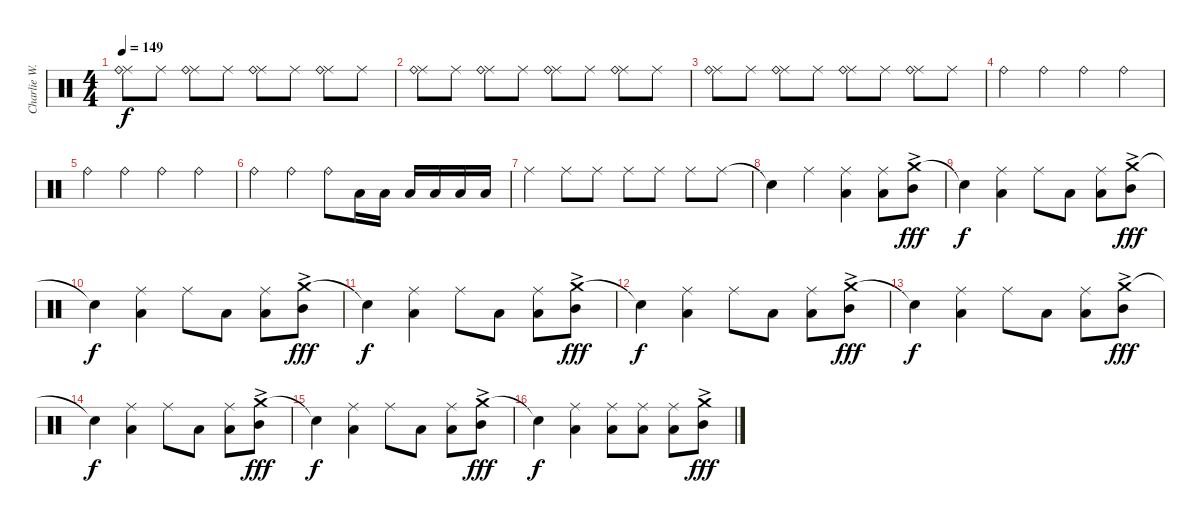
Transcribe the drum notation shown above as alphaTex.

\track ("Charlie W. drums" "Charlie W.") {instrument percussion}
\staff {score}
\articulation defaults
\ts (4 4)
\tempo 149
\clef neutral
\ks c
("Ride (middle)" "Ride (bell)").8{dy f} "Ride (middle)".8 ("Ride (middle)" "Ride (bell)").8 "Ride (middle)".8 ("Ride (middle)" "Ride (bell)").8 "Ride (middle)".8 ("Ride (middle)" "Ride (bell)").8 "Ride (middle)".8 |
("Ride (middle)" "Ride (bell)").8 "Ride (middle)".8 ("Ride (middle)" "Ride (bell)").8 "Ride (middle)".8 ("Ride (middle)" "Ride (bell)").8 "Ride (middle)".8 ("Ride (middle)" "Ride (bell)").8 "Ride (middle)".8 |
("Ride (middle)" "Ride (bell)").8 "Ride (middle)".8 ("Ride (middle)" "Ride (bell)").8 "Ride (middle)".8 ("Ride (middle)" "Ride (bell)").8 "Ride (middle)".8 ("Ride (middle)" "Ride (bell)").8 "Ride (middle)".8 |
"Ride (bell)".4 "Ride (bell)".4 "Ride (bell)".4 "Ride (bell)".4 |
"Ride (bell)".4 "Ride (bell)".4 "Ride (bell)".4 "Ride (bell)".4 |
"Ride (bell)".4 "Ride (bell)".4 "Ride (bell)".8 "Low Tom (hit)".16 "Low Tom (hit)".16 "Low Tom (hit)".16 "Low Tom (hit)".16 "Low Tom (hit)".16 "Low Tom (hit)".16 |
"Ride (middle)".4 "Ride (middle)".8 "Ride (middle)".8 "Ride (middle)".8 "Ride (middle)".8 "Ride (middle)".8 "Ride (middle)".8 |
"Snare (hit)"{t}.4 "Ride (middle)".4 ("Ride (middle)" "Low Tom (hit)").4 ("Ride (middle)" "Low Tom (hit)").8 ("Crash medium (hit)"{ac} "Mid Tom (hit)").8{dy fff} |
"Snare (hit)"{t}.4{dy f} ("Ride (middle)" "Low Tom (hit)").4 "Ride (middle)".8 "Low Tom (hit)".8 ("Ride (middle)" "Low Tom (hit)").8 ("Crash medium (hit)"{ac} "Mid Tom (hit)").8{dy fff} |
"Snare (hit)"{t}.4{dy f} ("Ride (middle)" "Low Tom (hit)").4 "Ride (middle)".8 "Low Tom (hit)".8 ("Ride (middle)" "Low Tom (hit)").8 ("Crash medium (hit)"{ac} "Mid Tom (hit)").8{dy fff} |
"Snare (hit)"{t}.4{dy f} ("Ride (middle)" "Low Tom (hit)").4 "Ride (middle)".8 "Low Tom (hit)".8 ("Ride (middle)" "Low Tom (hit)").8 ("Crash medium (hit)"{ac} "Mid Tom (hit)").8{dy fff} |
"Snare (hit)"{t}.4{dy f} ("Ride (middle)" "Low Tom (hit)").4 "Ride (middle)".8 "Low Tom (hit)".8 ("Ride (middle)" "Low Tom (hit)").8 ("Crash medium (hit)"{ac} "Mid Tom (hit)").8{dy fff} |
"Snare (hit)"{t}.4{dy f} ("Ride (middle)" "Low Tom (hit)").4 "Ride (middle)".8 "Low Tom (hit)".8 ("Ride (middle)" "Low Tom (hit)").8 ("Crash medium (hit)"{ac} "Mid Tom (hit)").8{dy fff} |
"Snare (hit)"{t}.4{dy f} ("Ride (middle)" "Low Tom (hit)").4 "Ride (middle)".8 "Low Tom (hit)".8 ("Ride (middle)" "Low Tom (hit)").8 ("Crash medium (hit)"{ac} "Mid Tom (hit)"{ac}).8{dy fff} |
"Snare (hit)"{t}.4{dy f} ("Ride (middle)" "Low Tom (hit)").4 "Ride (middle)".8 "Low Tom (hit)".8 ("Ride (middle)" "Low Tom (hit)").8 ("Crash medium (hit)"{ac} "Mid Tom (hit)"{ac}).8{dy fff} |
"Snare (hit)"{t}.4{dy f} ("Ride (middle)" "Low Tom (hit)").4 ("Ride (middle)" "Low Tom (hit)").8 ("Ride (middle)" "Low Tom (hit)").8 ("Ride (middle)" "Low Tom (hit)").8 ("Crash medium (hit)"{ac} "Mid Tom (hit)"{ac}).8{dy fff}
